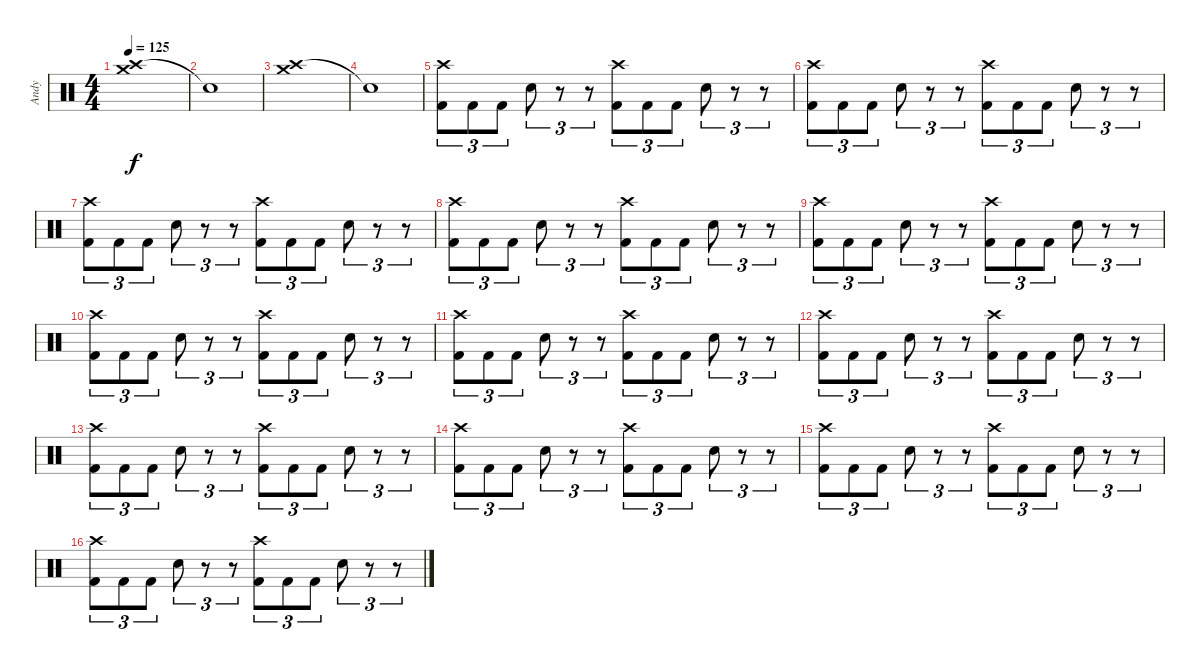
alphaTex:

\track ("Andy" "Andy") {instrument percussion}
\staff {score}
\articulation defaults
\ts (4 4)
\tempo 125
\clef neutral
\ks c
("Crash high (hit)" "Crash medium (hit)").1{dy f} |
"Snare (hit)"{t}.1 |
("Crash high (hit)" "Crash medium (hit)").1 |
"Snare (hit)"{t}.1 |
("Crash high (hit)" "Kick (hit) 2").8{tu (3 2)} "Kick (hit) 2".8{tu (3 2)} "Kick (hit) 2".8{tu (3 2)} "Snare (hit) 2".8{tu (3 2)} r.8{tu (3 2)} r.8{tu (3 2)} ("Crash high (hit)" "Kick (hit) 2").8{tu (3 2)} "Kick (hit) 2".8{tu (3 2)} "Kick (hit) 2".8{tu (3 2)} "Snare (hit) 2".8{tu (3 2)} r.8{tu (3 2)} r.8{tu (3 2)} |
("Crash high (hit)" "Kick (hit) 2").8{tu (3 2)} "Kick (hit) 2".8{tu (3 2)} "Kick (hit) 2".8{tu (3 2)} "Snare (hit) 2".8{tu (3 2)} r.8{tu (3 2)} r.8{tu (3 2)} ("Crash high (hit)" "Kick (hit) 2").8{tu (3 2)} "Kick (hit) 2".8{tu (3 2)} "Kick (hit) 2".8{tu (3 2)} "Snare (hit) 2".8{tu (3 2)} r.8{tu (3 2)} r.8{tu (3 2)} |
("Crash high (hit)" "Kick (hit) 2").8{tu (3 2)} "Kick (hit) 2".8{tu (3 2)} "Kick (hit) 2".8{tu (3 2)} "Snare (hit) 2".8{tu (3 2)} r.8{tu (3 2)} r.8{tu (3 2)} ("Crash high (hit)" "Kick (hit) 2").8{tu (3 2)} "Kick (hit) 2".8{tu (3 2)} "Kick (hit) 2".8{tu (3 2)} "Snare (hit) 2".8{tu (3 2)} r.8{tu (3 2)} r.8{tu (3 2)} |
("Crash high (hit)" "Kick (hit) 2").8{tu (3 2)} "Kick (hit) 2".8{tu (3 2)} "Kick (hit) 2".8{tu (3 2)} "Snare (hit) 2".8{tu (3 2)} r.8{tu (3 2)} r.8{tu (3 2)} ("Crash high (hit)" "Kick (hit) 2").8{tu (3 2)} "Kick (hit) 2".8{tu (3 2)} "Kick (hit) 2".8{tu (3 2)} "Snare (hit) 2".8{tu (3 2)} r.8{tu (3 2)} r.8{tu (3 2)} |
("Crash high (hit)" "Kick (hit) 2").8{tu (3 2)} "Kick (hit) 2".8{tu (3 2)} "Kick (hit) 2".8{tu (3 2)} "Snare (hit) 2".8{tu (3 2)} r.8{tu (3 2)} r.8{tu (3 2)} ("Crash high (hit)" "Kick (hit) 2").8{tu (3 2)} "Kick (hit) 2".8{tu (3 2)} "Kick (hit) 2".8{tu (3 2)} "Snare (hit) 2".8{tu (3 2)} r.8{tu (3 2)} r.8{tu (3 2)} |
("Crash high (hit)" "Kick (hit) 2").8{tu (3 2)} "Kick (hit) 2".8{tu (3 2)} "Kick (hit) 2".8{tu (3 2)} "Snare (hit) 2".8{tu (3 2)} r.8{tu (3 2)} r.8{tu (3 2)} ("Crash high (hit)" "Kick (hit) 2").8{tu (3 2)} "Kick (hit) 2".8{tu (3 2)} "Kick (hit) 2".8{tu (3 2)} "Snare (hit) 2".8{tu (3 2)} r.8{tu (3 2)} r.8{tu (3 2)} |
("Crash high (hit)" "Kick (hit) 2").8{tu (3 2)} "Kick (hit) 2".8{tu (3 2)} "Kick (hit) 2".8{tu (3 2)} "Snare (hit) 2".8{tu (3 2)} r.8{tu (3 2)} r.8{tu (3 2)} ("Crash high (hit)" "Kick (hit) 2").8{tu (3 2)} "Kick (hit) 2".8{tu (3 2)} "Kick (hit) 2".8{tu (3 2)} "Snare (hit) 2".8{tu (3 2)} r.8{tu (3 2)} r.8{tu (3 2)} |
("Crash high (hit)" "Kick (hit) 2").8{tu (3 2)} "Kick (hit) 2".8{tu (3 2)} "Kick (hit) 2".8{tu (3 2)} "Snare (hit) 2".8{tu (3 2)} r.8{tu (3 2)} r.8{tu (3 2)} ("Crash high (hit)" "Kick (hit) 2").8{tu (3 2)} "Kick (hit) 2".8{tu (3 2)} "Kick (hit) 2".8{tu (3 2)} "Snare (hit) 2".8{tu (3 2)} r.8{tu (3 2)} r.8{tu (3 2)} |
("Crash high (hit)" "Kick (hit) 2").8{tu (3 2)} "Kick (hit) 2".8{tu (3 2)} "Kick (hit) 2".8{tu (3 2)} "Snare (hit) 2".8{tu (3 2)} r.8{tu (3 2)} r.8{tu (3 2)} ("Crash high (hit)" "Kick (hit) 2").8{tu (3 2)} "Kick (hit) 2".8{tu (3 2)} "Kick (hit) 2".8{tu (3 2)} "Snare (hit) 2".8{tu (3 2)} r.8{tu (3 2)} r.8{tu (3 2)} |
("Crash high (hit)" "Kick (hit) 2").8{tu (3 2)} "Kick (hit) 2".8{tu (3 2)} "Kick (hit) 2".8{tu (3 2)} "Snare (hit) 2".8{tu (3 2)} r.8{tu (3 2)} r.8{tu (3 2)} ("Crash high (hit)" "Kick (hit) 2").8{tu (3 2)} "Kick (hit) 2".8{tu (3 2)} "Kick (hit) 2".8{tu (3 2)} "Snare (hit) 2".8{tu (3 2)} r.8{tu (3 2)} r.8{tu (3 2)} |
("Crash high (hit)" "Kick (hit) 2").8{tu (3 2)} "Kick (hit) 2".8{tu (3 2)} "Kick (hit) 2".8{tu (3 2)} "Snare (hit) 2".8{tu (3 2)} r.8{tu (3 2)} r.8{tu (3 2)} ("Crash high (hit)" "Kick (hit) 2").8{tu (3 2)} "Kick (hit) 2".8{tu (3 2)} "Kick (hit) 2".8{tu (3 2)} "Snare (hit) 2".8{tu (3 2)} r.8{tu (3 2)} r.8{tu (3 2)} |
("Crash high (hit)" "Kick (hit) 2").8{tu (3 2)} "Kick (hit) 2".8{tu (3 2)} "Kick (hit) 2".8{tu (3 2)} "Snare (hit) 2".8{tu (3 2)} r.8{tu (3 2)} r.8{tu (3 2)} ("Crash high (hit)" "Kick (hit) 2").8{tu (3 2)} "Kick (hit) 2".8{tu (3 2)} "Kick (hit) 2".8{tu (3 2)} "Snare (hit) 2".8{tu (3 2)} r.8{tu (3 2)} r.8{tu (3 2)}
